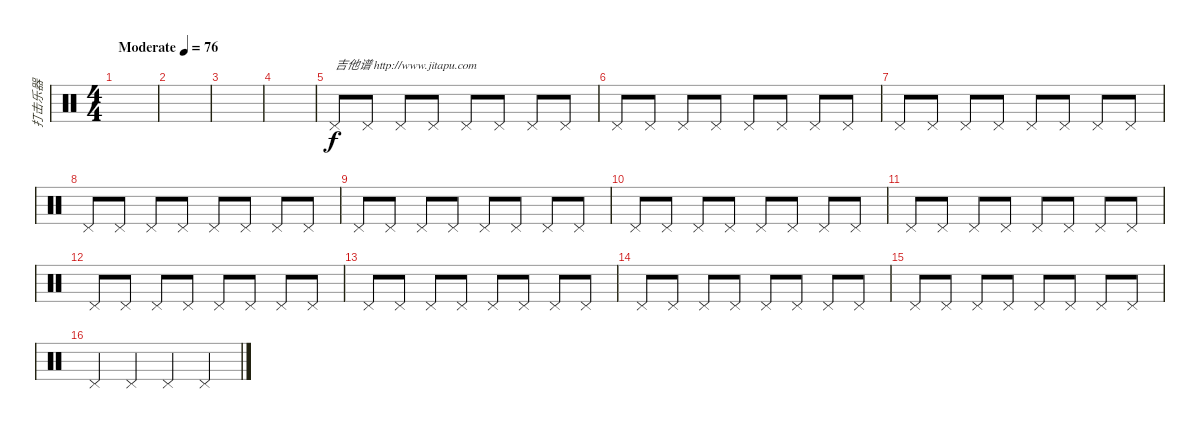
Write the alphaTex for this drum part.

\track ("打击乐器" "打击乐器") {instrument percussion}
\staff {score}
\articulation defaults
\ts (4 4)
\tempo (76 "Moderate")
\clef neutral
\ks c
|
|
|
|
"Pedal Hi-Hat (hit)".8{txt "吉他谱 http://www.jitapu.com"} "Pedal Hi-Hat (hit)".8 "Pedal Hi-Hat (hit)".8 "Pedal Hi-Hat (hit)".8 "Pedal Hi-Hat (hit)".8 "Pedal Hi-Hat (hit)".8 "Pedal Hi-Hat (hit)".8 "Pedal Hi-Hat (hit)".8 |
"Pedal Hi-Hat (hit)".8 "Pedal Hi-Hat (hit)".8 "Pedal Hi-Hat (hit)".8 "Pedal Hi-Hat (hit)".8 "Pedal Hi-Hat (hit)".8 "Pedal Hi-Hat (hit)".8 "Pedal Hi-Hat (hit)".8 "Pedal Hi-Hat (hit)".8 |
"Pedal Hi-Hat (hit)".8 "Pedal Hi-Hat (hit)".8 "Pedal Hi-Hat (hit)".8 "Pedal Hi-Hat (hit)".8 "Pedal Hi-Hat (hit)".8 "Pedal Hi-Hat (hit)".8 "Pedal Hi-Hat (hit)".8 "Pedal Hi-Hat (hit)".8 |
"Pedal Hi-Hat (hit)".8 "Pedal Hi-Hat (hit)".8 "Pedal Hi-Hat (hit)".8 "Pedal Hi-Hat (hit)".8 "Pedal Hi-Hat (hit)".8 "Pedal Hi-Hat (hit)".8 "Pedal Hi-Hat (hit)".8 "Pedal Hi-Hat (hit)".8 |
"Pedal Hi-Hat (hit)".8 "Pedal Hi-Hat (hit)".8 "Pedal Hi-Hat (hit)".8 "Pedal Hi-Hat (hit)".8 "Pedal Hi-Hat (hit)".8 "Pedal Hi-Hat (hit)".8 "Pedal Hi-Hat (hit)".8 "Pedal Hi-Hat (hit)".8 |
"Pedal Hi-Hat (hit)".8 "Pedal Hi-Hat (hit)".8 "Pedal Hi-Hat (hit)".8 "Pedal Hi-Hat (hit)".8 "Pedal Hi-Hat (hit)".8 "Pedal Hi-Hat (hit)".8 "Pedal Hi-Hat (hit)".8 "Pedal Hi-Hat (hit)".8 |
"Pedal Hi-Hat (hit)".8 "Pedal Hi-Hat (hit)".8 "Pedal Hi-Hat (hit)".8 "Pedal Hi-Hat (hit)".8 "Pedal Hi-Hat (hit)".8 "Pedal Hi-Hat (hit)".8 "Pedal Hi-Hat (hit)".8 "Pedal Hi-Hat (hit)".8 |
"Pedal Hi-Hat (hit)".8 "Pedal Hi-Hat (hit)".8 "Pedal Hi-Hat (hit)".8 "Pedal Hi-Hat (hit)".8 "Pedal Hi-Hat (hit)".8 "Pedal Hi-Hat (hit)".8 "Pedal Hi-Hat (hit)".8 "Pedal Hi-Hat (hit)".8 |
"Pedal Hi-Hat (hit)".8 "Pedal Hi-Hat (hit)".8 "Pedal Hi-Hat (hit)".8 "Pedal Hi-Hat (hit)".8 "Pedal Hi-Hat (hit)".8 "Pedal Hi-Hat (hit)".8 "Pedal Hi-Hat (hit)".8 "Pedal Hi-Hat (hit)".8 |
"Pedal Hi-Hat (hit)".8 "Pedal Hi-Hat (hit)".8 "Pedal Hi-Hat (hit)".8 "Pedal Hi-Hat (hit)".8 "Pedal Hi-Hat (hit)".8 "Pedal Hi-Hat (hit)".8 "Pedal Hi-Hat (hit)".8 "Pedal Hi-Hat (hit)".8 |
"Pedal Hi-Hat (hit)".8 "Pedal Hi-Hat (hit)".8 "Pedal Hi-Hat (hit)".8 "Pedal Hi-Hat (hit)".8 "Pedal Hi-Hat (hit)".8 "Pedal Hi-Hat (hit)".8 "Pedal Hi-Hat (hit)".8 "Pedal Hi-Hat (hit)".8 |
"Pedal Hi-Hat (hit)".4 "Pedal Hi-Hat (hit)".4 "Pedal Hi-Hat (hit)".4 "Pedal Hi-Hat (hit)".4
